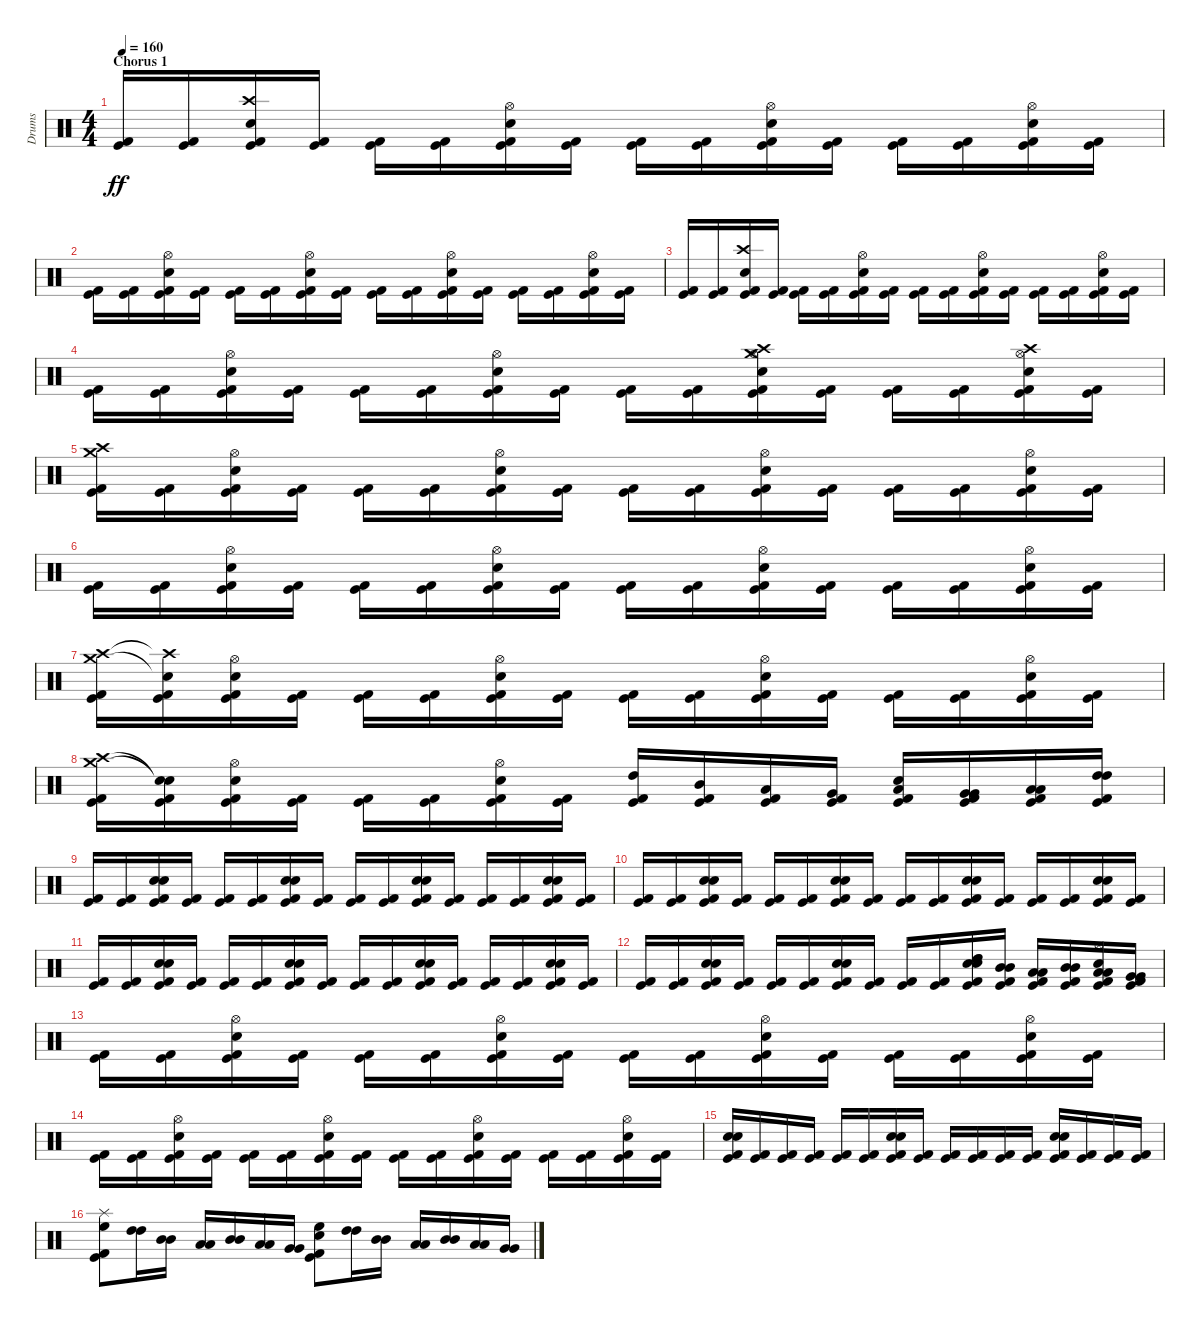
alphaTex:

\track ("Drums" "Drums") {instrument percussion}
\staff {score}
\articulation defaults
\ts (4 4)
\section ("" "Chorus 1")
\tempo 160
\clef neutral
\ks c
("Kick (hit) 2" "Kick (hit)").16{dy ff} ("Kick (hit) 2" "Kick (hit)").16 ("Kick (hit) 2" "Kick (hit)" "Crash high (hit)" "Snare (hit) 2").16 ("Kick (hit) 2" "Kick (hit)").16 ("Kick (hit) 2" "Kick (hit)").16 ("Kick (hit) 2" "Kick (hit)").16 ("Kick (hit) 2" "Kick (hit)" "Hi-Hat (open)" "Snare (hit) 2").16 ("Kick (hit) 2" "Kick (hit)").16 ("Kick (hit) 2" "Kick (hit)").16 ("Kick (hit) 2" "Kick (hit)").16 ("Kick (hit) 2" "Kick (hit)" "Hi-Hat (open)" "Snare (hit) 2").16 ("Kick (hit) 2" "Kick (hit)").16 ("Kick (hit) 2" "Kick (hit)").16 ("Kick (hit) 2" "Kick (hit)").16 ("Kick (hit) 2" "Kick (hit)" "Hi-Hat (open)" "Snare (hit) 2").16 ("Kick (hit) 2" "Kick (hit)").16 |
("Kick (hit) 2" "Kick (hit)").16 ("Kick (hit) 2" "Kick (hit)").16 ("Kick (hit) 2" "Kick (hit)" "Hi-Hat (open)" "Snare (hit) 2").16 ("Kick (hit) 2" "Kick (hit)").16 ("Kick (hit) 2" "Kick (hit)").16 ("Kick (hit) 2" "Kick (hit)").16 ("Kick (hit) 2" "Kick (hit)" "Hi-Hat (open)" "Snare (hit) 2").16 ("Kick (hit) 2" "Kick (hit)").16 ("Kick (hit) 2" "Kick (hit)").16 ("Kick (hit) 2" "Kick (hit)").16 ("Kick (hit) 2" "Kick (hit)" "Hi-Hat (open)" "Snare (hit) 2").16 ("Kick (hit) 2" "Kick (hit)").16 ("Kick (hit) 2" "Kick (hit)").16 ("Kick (hit) 2" "Kick (hit)").16 ("Kick (hit) 2" "Kick (hit)" "Hi-Hat (open)" "Snare (hit) 2").16 ("Kick (hit) 2" "Kick (hit)").16 |
("Kick (hit) 2" "Kick (hit)").16 ("Kick (hit) 2" "Kick (hit)").16 ("Kick (hit) 2" "Kick (hit)" "Crash high (hit)" "Snare (hit) 2").16 ("Kick (hit) 2" "Kick (hit)").16 ("Kick (hit) 2" "Kick (hit)").16 ("Kick (hit) 2" "Kick (hit)").16 ("Kick (hit) 2" "Kick (hit)" "Hi-Hat (open)" "Snare (hit) 2").16 ("Kick (hit) 2" "Kick (hit)").16 ("Kick (hit) 2" "Kick (hit)").16 ("Kick (hit) 2" "Kick (hit)").16 ("Kick (hit) 2" "Kick (hit)" "Hi-Hat (open)" "Snare (hit) 2").16 ("Kick (hit) 2" "Kick (hit)").16 ("Kick (hit) 2" "Kick (hit)").16 ("Kick (hit) 2" "Kick (hit)").16 ("Kick (hit) 2" "Kick (hit)" "Hi-Hat (open)" "Snare (hit) 2").16 ("Kick (hit) 2" "Kick (hit)").16 |
("Kick (hit) 2" "Kick (hit)").16 ("Kick (hit) 2" "Kick (hit)").16 ("Kick (hit) 2" "Kick (hit)" "Hi-Hat (open)" "Snare (hit) 2").16 ("Kick (hit) 2" "Kick (hit)").16 ("Kick (hit) 2" "Kick (hit)").16 ("Kick (hit) 2" "Kick (hit)").16 ("Kick (hit) 2" "Kick (hit)" "Hi-Hat (open)" "Snare (hit) 2").16 ("Kick (hit) 2" "Kick (hit)").16 ("Kick (hit) 2" "Kick (hit)").16 ("Kick (hit) 2" "Kick (hit)").16 ("Kick (hit) 2" "Kick (hit)" "Hi-Hat (open)" "Snare (hit) 2" "Crash high (hit)" "Crash medium (hit)").16 ("Kick (hit) 2" "Kick (hit)").16 ("Kick (hit) 2" "Kick (hit)").16 ("Kick (hit) 2" "Kick (hit)").16 ("Kick (hit) 2" "Kick (hit)" "Hi-Hat (open)" "Snare (hit) 2" "Crash high (hit)").16 ("Kick (hit) 2" "Kick (hit)").16 |
("Kick (hit) 2" "Kick (hit)" "Crash high (hit)" "Crash medium (hit)").16 ("Kick (hit) 2" "Kick (hit)").16 ("Kick (hit) 2" "Kick (hit)" "Hi-Hat (open)" "Snare (hit) 2").16 ("Kick (hit) 2" "Kick (hit)").16 ("Kick (hit) 2" "Kick (hit)").16 ("Kick (hit) 2" "Kick (hit)").16 ("Kick (hit) 2" "Kick (hit)" "Hi-Hat (open)" "Snare (hit) 2").16 ("Kick (hit) 2" "Kick (hit)").16 ("Kick (hit) 2" "Kick (hit)").16 ("Kick (hit) 2" "Kick (hit)").16 ("Kick (hit) 2" "Kick (hit)" "Hi-Hat (open)" "Snare (hit) 2").16 ("Kick (hit) 2" "Kick (hit)").16 ("Kick (hit) 2" "Kick (hit)").16 ("Kick (hit) 2" "Kick (hit)").16 ("Kick (hit) 2" "Kick (hit)" "Hi-Hat (open)" "Snare (hit) 2").16 ("Kick (hit) 2" "Kick (hit)").16 |
("Kick (hit) 2" "Kick (hit)").16 ("Kick (hit) 2" "Kick (hit)").16 ("Kick (hit) 2" "Kick (hit)" "Hi-Hat (open)" "Snare (hit) 2").16 ("Kick (hit) 2" "Kick (hit)").16 ("Kick (hit) 2" "Kick (hit)").16 ("Kick (hit) 2" "Kick (hit)").16 ("Kick (hit) 2" "Kick (hit)" "Hi-Hat (open)" "Snare (hit) 2").16 ("Kick (hit) 2" "Kick (hit)").16 ("Kick (hit) 2" "Kick (hit)").16 ("Kick (hit) 2" "Kick (hit)").16 ("Kick (hit) 2" "Kick (hit)" "Hi-Hat (open)" "Snare (hit) 2").16 ("Kick (hit) 2" "Kick (hit)").16 ("Kick (hit) 2" "Kick (hit)").16 ("Kick (hit) 2" "Kick (hit)").16 ("Kick (hit) 2" "Kick (hit)" "Hi-Hat (open)" "Snare (hit) 2").16 ("Kick (hit) 2" "Kick (hit)").16 |
("Kick (hit) 2" "Kick (hit)" "Crash high (hit)" "Crash medium (hit)").16 ("Kick (hit) 2" "Kick (hit)" "Crash high (hit)"{t} "Snare (hit)"{t}).16 ("Kick (hit) 2" "Kick (hit)" "Hi-Hat (open)" "Snare (hit) 2").16 ("Kick (hit) 2" "Kick (hit)").16 ("Kick (hit) 2" "Kick (hit)").16 ("Kick (hit) 2" "Kick (hit)").16 ("Kick (hit) 2" "Kick (hit)" "Hi-Hat (open)" "Snare (hit) 2").16 ("Kick (hit) 2" "Kick (hit)").16 ("Kick (hit) 2" "Kick (hit)").16 ("Kick (hit) 2" "Kick (hit)").16 ("Kick (hit) 2" "Kick (hit)" "Hi-Hat (open)" "Snare (hit) 2").16 ("Kick (hit) 2" "Kick (hit)").16 ("Kick (hit) 2" "Kick (hit)").16 ("Kick (hit) 2" "Kick (hit)").16 ("Kick (hit) 2" "Kick (hit)" "Hi-Hat (open)" "Snare (hit) 2").16 ("Kick (hit) 2" "Kick (hit)").16 |
("Kick (hit) 2" "Kick (hit)" "Crash high (hit)" "Crash medium (hit)").16 ("Kick (hit) 2" "Kick (hit)" "Snare (hit)"{t} "Snare (hit)"{t}).16 ("Kick (hit) 2" "Kick (hit)" "Hi-Hat (open)" "Snare (hit) 2").16 ("Kick (hit) 2" "Kick (hit)").16 ("Kick (hit) 2" "Kick (hit)").16 ("Kick (hit) 2" "Kick (hit)").16 ("Kick (hit) 2" "Kick (hit)" "Hi-Hat (open)" "Snare (hit) 2").16 ("Kick (hit) 2" "Kick (hit)").16 ("Kick (hit) 2" "Kick (hit)" "High Tom (hit)").16 ("Kick (hit) 2" "Kick (hit)" "Mid Tom (hit)").16 ("Kick (hit) 2" "Kick (hit)" "Low Tom (hit)").16 ("Kick (hit) 2" "Kick (hit)" "Very Low Tom (hit)").16 ("Kick (hit) 2" "Kick (hit)" "Low Tom (hit)" "Snare (hit)").16 ("Kick (hit) 2" "Kick (hit)" "Very Low Tom (hit)" "Very Low Tom (hit)").16 ("Kick (hit) 2" "Kick (hit)" "Low Floor Tom (hit)" "Low Floor Tom (hit)").16 ("Kick (hit) 2" "Kick (hit)" "High Tom (hit)" "High Tom (hit)").16 |
("Kick (hit) 2" "Kick (hit)").16 ("Kick (hit) 2" "Kick (hit)").16 ("Kick (hit) 2" "Kick (hit)" "Electric Snare (hit)" "Snare (hit) 2").16 ("Kick (hit) 2" "Kick (hit)").16 ("Kick (hit) 2" "Kick (hit)").16 ("Kick (hit) 2" "Kick (hit)").16 ("Kick (hit) 2" "Kick (hit)" "Electric Snare (hit)" "Snare (hit) 2").16 ("Kick (hit) 2" "Kick (hit)").16 ("Kick (hit) 2" "Kick (hit)").16 ("Kick (hit) 2" "Kick (hit)").16 ("Kick (hit) 2" "Kick (hit)" "Electric Snare (hit)" "Snare (hit) 2").16 ("Kick (hit) 2" "Kick (hit)").16 ("Kick (hit) 2" "Kick (hit)").16 ("Kick (hit) 2" "Kick (hit)").16 ("Kick (hit) 2" "Kick (hit)" "Electric Snare (hit)" "Snare (hit) 2").16 ("Kick (hit) 2" "Kick (hit)").16 |
("Kick (hit) 2" "Kick (hit)").16 ("Kick (hit) 2" "Kick (hit)").16 ("Kick (hit) 2" "Kick (hit)" "Electric Snare (hit)" "Snare (hit) 2").16 ("Kick (hit) 2" "Kick (hit)").16 ("Kick (hit) 2" "Kick (hit)").16 ("Kick (hit) 2" "Kick (hit)").16 ("Kick (hit) 2" "Kick (hit)" "Electric Snare (hit)" "Snare (hit) 2").16 ("Kick (hit) 2" "Kick (hit)").16 ("Kick (hit) 2" "Kick (hit)").16 ("Kick (hit) 2" "Kick (hit)").16 ("Kick (hit) 2" "Kick (hit)" "Electric Snare (hit)" "Snare (hit) 2").16 ("Kick (hit) 2" "Kick (hit)").16 ("Kick (hit) 2" "Kick (hit)").16 ("Kick (hit) 2" "Kick (hit)").16 ("Kick (hit) 2" "Kick (hit)" "Electric Snare (hit)" "Snare (hit) 2").16 ("Kick (hit) 2" "Kick (hit)").16 |
("Kick (hit) 2" "Kick (hit)").16 ("Kick (hit) 2" "Kick (hit)").16 ("Kick (hit) 2" "Kick (hit)" "Electric Snare (hit)" "Snare (hit) 2").16 ("Kick (hit) 2" "Kick (hit)").16 ("Kick (hit) 2" "Kick (hit)").16 ("Kick (hit) 2" "Kick (hit)").16 ("Kick (hit) 2" "Kick (hit)" "Electric Snare (hit)" "Snare (hit) 2").16 ("Kick (hit) 2" "Kick (hit)").16 ("Kick (hit) 2" "Kick (hit)").16 ("Kick (hit) 2" "Kick (hit)").16 ("Kick (hit) 2" "Kick (hit)" "Electric Snare (hit)" "Snare (hit) 2").16 ("Kick (hit) 2" "Kick (hit)").16 ("Kick (hit) 2" "Kick (hit)").16 ("Kick (hit) 2" "Kick (hit)").16 ("Kick (hit) 2" "Kick (hit)" "Electric Snare (hit)" "Snare (hit) 2").16 ("Kick (hit) 2" "Kick (hit)").16 |
("Kick (hit) 2" "Kick (hit)").16 ("Kick (hit) 2" "Kick (hit)").16 ("Kick (hit) 2" "Kick (hit)" "Electric Snare (hit)" "Snare (hit) 2").16 ("Kick (hit) 2" "Kick (hit)").16 ("Kick (hit) 2" "Kick (hit)").16 ("Kick (hit) 2" "Kick (hit)").16 ("Kick (hit) 2" "Kick (hit)" "Electric Snare (hit)" "Snare (hit) 2").16 ("Kick (hit) 2" "Kick (hit)").16 ("Kick (hit) 2" "Kick (hit)").16 ("Kick (hit) 2" "Kick (hit)").16 ("Kick (hit) 2" "Kick (hit)" "Electric Snare (hit)" "Snare (hit) 2" "High Tom (hit)" "High Tom (hit)").16 ("Mid Tom (hit)" "Mid Tom (hit)" "Kick (hit) 2" "Kick (hit)").16 ("Low Tom (hit)" "Low Tom (hit)" "Kick (hit) 2" "Kick (hit)").16 ("Mid Tom (hit)" "Mid Tom (hit)" "Kick (hit) 2" "Kick (hit)").16 ("Low Tom (hit)" "Low Tom (hit)" "Hi-Hat (open)" "Snare (hit) 2" "Kick (hit) 2" "Kick (hit)").16 ("Very Low Tom (hit)" "Very Low Tom (hit)" "Kick (hit) 2" "Kick (hit)").16 |
("Kick (hit) 2" "Kick (hit)").16 ("Kick (hit) 2" "Kick (hit)").16 ("Kick (hit) 2" "Kick (hit)" "Hi-Hat (open)" "Snare (hit) 2").16 ("Kick (hit) 2" "Kick (hit)").16 ("Kick (hit) 2" "Kick (hit)").16 ("Kick (hit) 2" "Kick (hit)").16 ("Kick (hit) 2" "Kick (hit)" "Hi-Hat (open)" "Snare (hit) 2").16 ("Kick (hit) 2" "Kick (hit)").16 ("Kick (hit) 2" "Kick (hit)").16 ("Kick (hit) 2" "Kick (hit)").16 ("Kick (hit) 2" "Kick (hit)" "Hi-Hat (open)" "Snare (hit) 2").16 ("Kick (hit) 2" "Kick (hit)").16 ("Kick (hit) 2" "Kick (hit)").16 ("Kick (hit) 2" "Kick (hit)").16 ("Kick (hit) 2" "Kick (hit)" "Hi-Hat (open)" "Snare (hit) 2").16 ("Kick (hit) 2" "Kick (hit)").16 |
("Kick (hit) 2" "Kick (hit)").16 ("Kick (hit) 2" "Kick (hit)").16 ("Kick (hit) 2" "Kick (hit)" "Hi-Hat (open)" "Snare (hit) 2").16 ("Kick (hit) 2" "Kick (hit)").16 ("Kick (hit) 2" "Kick (hit)").16 ("Kick (hit) 2" "Kick (hit)").16 ("Kick (hit) 2" "Kick (hit)" "Hi-Hat (open)" "Snare (hit) 2").16 ("Kick (hit) 2" "Kick (hit)").16 ("Kick (hit) 2" "Kick (hit)").16 ("Kick (hit) 2" "Kick (hit)").16 ("Kick (hit) 2" "Kick (hit)" "Hi-Hat (open)" "Snare (hit) 2").16 ("Kick (hit) 2" "Kick (hit)").16 ("Kick (hit) 2" "Kick (hit)").16 ("Kick (hit) 2" "Kick (hit)").16 ("Kick (hit) 2" "Kick (hit)" "Hi-Hat (open)" "Snare (hit) 2").16 ("Kick (hit) 2" "Kick (hit)").16 |
("Kick (hit) 2" "Kick (hit)" "Snare (hit) 2" "Electric Snare (hit)").16 ("Kick (hit) 2" "Kick (hit)").16 ("Kick (hit) 2" "Kick (hit)").16 ("Kick (hit) 2" "Kick (hit)").16 ("Kick (hit) 2" "Kick (hit)").16 ("Kick (hit) 2" "Kick (hit)").16 ("Kick (hit) 2" "Kick (hit)" "Snare (hit) 2" "Electric Snare (hit)").16 ("Kick (hit) 2" "Kick (hit)").16 ("Kick (hit) 2" "Kick (hit)").16 ("Kick (hit) 2" "Kick (hit)").16 ("Kick (hit) 2" "Kick (hit)").16 ("Kick (hit) 2" "Kick (hit)").16 ("Kick (hit) 2" "Kick (hit)" "Snare (hit) 2" "Electric Snare (hit)").16 ("Kick (hit) 2" "Kick (hit)").16 ("Kick (hit) 2" "Kick (hit)").16 ("Kick (hit) 2" "Kick (hit)").16 |
("Kick (hit) 2" "Kick (hit)" "High Floor Tom (hit)" "Splash (hit)").8 ("High Tom (hit)" "High Tom (hit)").16 ("Mid Tom (hit)" "Mid Tom (hit)").16 ("Low Tom (hit)" "Low Tom (hit)").16 ("Mid Tom (hit)" "Mid Tom (hit)").16 ("Low Tom (hit)" "Low Tom (hit)").16 ("Very Low Tom (hit)" "Very Low Tom (hit)").16 ("Kick (hit) 2" "Kick (hit)" "Snare (hit) 2" "High Floor Tom (hit)").8 ("High Tom (hit)" "High Tom (hit)").16 ("Mid Tom (hit)" "Mid Tom (hit)").16 ("Low Tom (hit)" "Low Tom (hit)").16 ("Mid Tom (hit)" "Mid Tom (hit)").16 ("Low Tom (hit)" "Low Tom (hit)").16 ("Very Low Tom (hit)" "Very Low Tom (hit)").16
